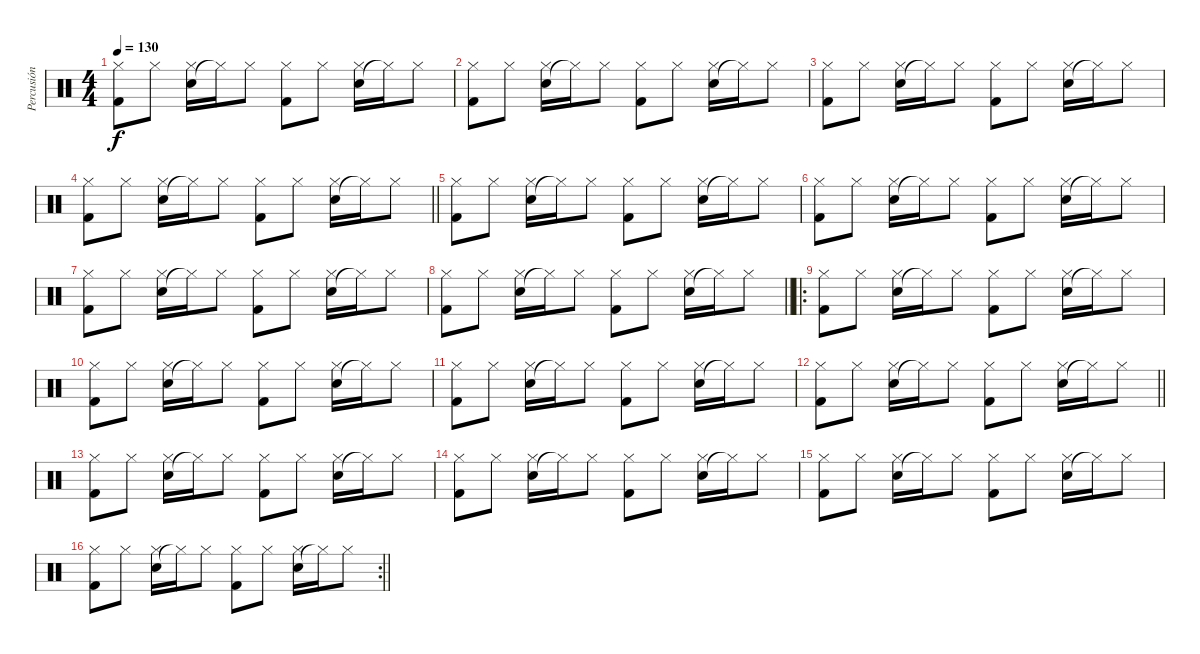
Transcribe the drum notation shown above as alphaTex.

\track ("Percusión" "Percusión") {instrument percussion}
\staff {score}
\articulation defaults
\ts (4 4)
\tempo 130
\clef neutral
\ks c
("Kick (hit) 2" "Hi-Hat (closed)").8{dy f} "Hi-Hat (closed)".8 ("Snare (hit) 2" "Hi-Hat (closed)").16 "Hi-Hat (closed)"{t}.16 "Hi-Hat (closed)".8 ("Kick (hit) 2" "Hi-Hat (closed)").8 "Hi-Hat (closed)".8 ("Snare (hit) 2" "Hi-Hat (closed)").16 "Hi-Hat (closed)"{t}.16 "Hi-Hat (closed)".8 |
("Kick (hit) 2" "Hi-Hat (closed)").8 "Hi-Hat (closed)".8 ("Snare (hit) 2" "Hi-Hat (closed)").16 "Hi-Hat (closed)"{t}.16 "Hi-Hat (closed)".8 ("Kick (hit) 2" "Hi-Hat (closed)").8 "Hi-Hat (closed)".8 ("Snare (hit) 2" "Hi-Hat (closed)").16 "Hi-Hat (closed)"{t}.16 "Hi-Hat (closed)".8 |
("Kick (hit) 2" "Hi-Hat (closed)").8 "Hi-Hat (closed)".8 ("Snare (hit) 2" "Hi-Hat (closed)").16 "Hi-Hat (closed)"{t}.16 "Hi-Hat (closed)".8 ("Kick (hit) 2" "Hi-Hat (closed)").8 "Hi-Hat (closed)".8 ("Snare (hit) 2" "Hi-Hat (closed)").16 "Hi-Hat (closed)"{t}.16 "Hi-Hat (closed)".8 |
\barLineRight lightlight
("Kick (hit) 2" "Hi-Hat (closed)").8 "Hi-Hat (closed)".8 ("Snare (hit) 2" "Hi-Hat (closed)").16 "Hi-Hat (closed)"{t}.16 "Hi-Hat (closed)".8 ("Kick (hit) 2" "Hi-Hat (closed)").8 "Hi-Hat (closed)".8 ("Snare (hit) 2" "Hi-Hat (closed)").16 "Hi-Hat (closed)"{t}.16 "Hi-Hat (closed)".8 |
("Kick (hit) 2" "Hi-Hat (closed)").8 "Hi-Hat (closed)".8 ("Snare (hit) 2" "Hi-Hat (closed)").16 "Hi-Hat (closed)"{t}.16 "Hi-Hat (closed)".8 ("Kick (hit) 2" "Hi-Hat (closed)").8 "Hi-Hat (closed)".8 ("Snare (hit) 2" "Hi-Hat (closed)").16 "Hi-Hat (closed)"{t}.16 "Hi-Hat (closed)".8 |
("Kick (hit) 2" "Hi-Hat (closed)").8 "Hi-Hat (closed)".8 ("Snare (hit) 2" "Hi-Hat (closed)").16 "Hi-Hat (closed)"{t}.16 "Hi-Hat (closed)".8 ("Kick (hit) 2" "Hi-Hat (closed)").8 "Hi-Hat (closed)".8 ("Snare (hit) 2" "Hi-Hat (closed)").16 "Hi-Hat (closed)"{t}.16 "Hi-Hat (closed)".8 |
("Kick (hit) 2" "Hi-Hat (closed)").8 "Hi-Hat (closed)".8 ("Snare (hit) 2" "Hi-Hat (closed)").16 "Hi-Hat (closed)"{t}.16 "Hi-Hat (closed)".8 ("Kick (hit) 2" "Hi-Hat (closed)").8 "Hi-Hat (closed)".8 ("Snare (hit) 2" "Hi-Hat (closed)").16 "Hi-Hat (closed)"{t}.16 "Hi-Hat (closed)".8 |
\barLineRight lightlight
("Kick (hit) 2" "Hi-Hat (closed)").8 "Hi-Hat (closed)".8 ("Snare (hit) 2" "Hi-Hat (closed)").16 "Hi-Hat (closed)"{t}.16 "Hi-Hat (closed)".8 ("Kick (hit) 2" "Hi-Hat (closed)").8 "Hi-Hat (closed)".8 ("Snare (hit) 2" "Hi-Hat (closed)").16 "Hi-Hat (closed)"{t}.16 "Hi-Hat (closed)".8 |
\ro
("Kick (hit) 2" "Hi-Hat (closed)").8 "Hi-Hat (closed)".8 ("Snare (hit) 2" "Hi-Hat (closed)").16 "Hi-Hat (closed)"{t}.16 "Hi-Hat (closed)".8 ("Kick (hit) 2" "Hi-Hat (closed)").8 "Hi-Hat (closed)".8 ("Snare (hit) 2" "Hi-Hat (closed)").16 "Hi-Hat (closed)"{t}.16 "Hi-Hat (closed)".8 |
("Kick (hit) 2" "Hi-Hat (closed)").8 "Hi-Hat (closed)".8 ("Snare (hit) 2" "Hi-Hat (closed)").16 "Hi-Hat (closed)"{t}.16 "Hi-Hat (closed)".8 ("Kick (hit) 2" "Hi-Hat (closed)").8 "Hi-Hat (closed)".8 ("Snare (hit) 2" "Hi-Hat (closed)").16 "Hi-Hat (closed)"{t}.16 "Hi-Hat (closed)".8 |
("Kick (hit) 2" "Hi-Hat (closed)").8 "Hi-Hat (closed)".8 ("Snare (hit) 2" "Hi-Hat (closed)").16 "Hi-Hat (closed)"{t}.16 "Hi-Hat (closed)".8 ("Kick (hit) 2" "Hi-Hat (closed)").8 "Hi-Hat (closed)".8 ("Snare (hit) 2" "Hi-Hat (closed)").16 "Hi-Hat (closed)"{t}.16 "Hi-Hat (closed)".8 |
\barLineRight lightlight
("Kick (hit) 2" "Hi-Hat (closed)").8 "Hi-Hat (closed)".8 ("Snare (hit) 2" "Hi-Hat (closed)").16 "Hi-Hat (closed)"{t}.16 "Hi-Hat (closed)".8 ("Kick (hit) 2" "Hi-Hat (closed)").8 "Hi-Hat (closed)".8 ("Snare (hit) 2" "Hi-Hat (closed)").16 "Hi-Hat (closed)"{t}.16 "Hi-Hat (closed)".8 |
("Kick (hit) 2" "Hi-Hat (closed)").8 "Hi-Hat (closed)".8 ("Snare (hit) 2" "Hi-Hat (closed)").16 "Hi-Hat (closed)"{t}.16 "Hi-Hat (closed)".8 ("Kick (hit) 2" "Hi-Hat (closed)").8 "Hi-Hat (closed)".8 ("Snare (hit) 2" "Hi-Hat (closed)").16 "Hi-Hat (closed)"{t}.16 "Hi-Hat (closed)".8 |
("Kick (hit) 2" "Hi-Hat (closed)").8 "Hi-Hat (closed)".8 ("Snare (hit) 2" "Hi-Hat (closed)").16 "Hi-Hat (closed)"{t}.16 "Hi-Hat (closed)".8 ("Kick (hit) 2" "Hi-Hat (closed)").8 "Hi-Hat (closed)".8 ("Snare (hit) 2" "Hi-Hat (closed)").16 "Hi-Hat (closed)"{t}.16 "Hi-Hat (closed)".8 |
("Kick (hit) 2" "Hi-Hat (closed)").8 "Hi-Hat (closed)".8 ("Snare (hit) 2" "Hi-Hat (closed)").16 "Hi-Hat (closed)"{t}.16 "Hi-Hat (closed)".8 ("Kick (hit) 2" "Hi-Hat (closed)").8 "Hi-Hat (closed)".8 ("Snare (hit) 2" "Hi-Hat (closed)").16 "Hi-Hat (closed)"{t}.16 "Hi-Hat (closed)".8 |
\rc 2
\barLineRight lightlight
("Kick (hit) 2" "Hi-Hat (closed)").8 "Hi-Hat (closed)".8 ("Snare (hit) 2" "Hi-Hat (closed)").16 "Hi-Hat (closed)"{t}.16 "Hi-Hat (closed)".8 ("Kick (hit) 2" "Hi-Hat (closed)").8 "Hi-Hat (closed)".8 ("Snare (hit) 2" "Hi-Hat (closed)").16 "Hi-Hat (closed)"{t}.16 "Hi-Hat (closed)".8
